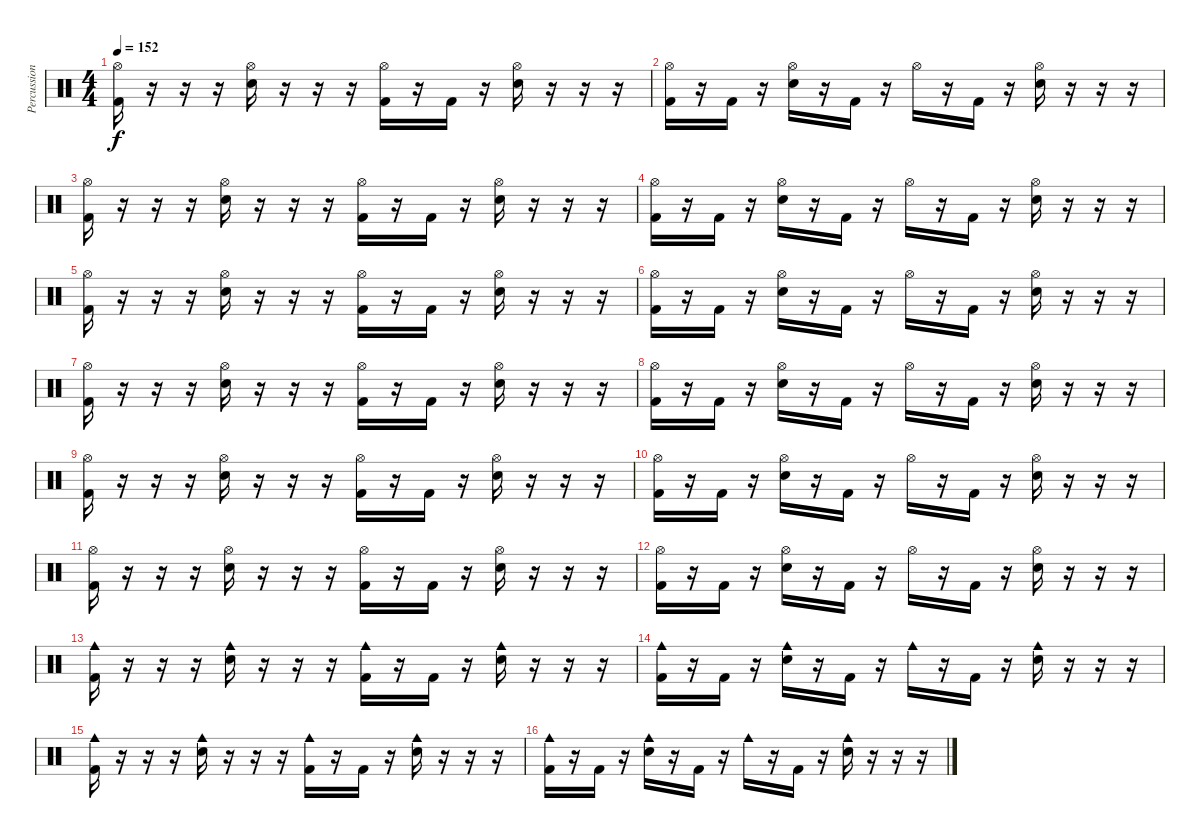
\track ("Percussions" "Percussion") {instrument percussion}
\staff {score}
\articulation defaults
\ts (4 4)
\tempo 152
\clef neutral
\ks c
("Kick (hit) 2" "Hi-Hat (open)").16{dy f} r.16 r.16 r.16 ("Electric Snare (hit)" "Hi-Hat (open)").16 r.16 r.16 r.16 ("Kick (hit) 2" "Hi-Hat (open)").16 r.16 "Kick (hit) 2".16 r.16 ("Electric Snare (hit)" "Hi-Hat (open)").16 r.16 r.16 r.16 |
("Kick (hit) 2" "Hi-Hat (open)").16 r.16 "Kick (hit) 2".16 r.16 ("Electric Snare (hit)" "Hi-Hat (open)").16 r.16 "Kick (hit) 2".16 r.16 "Hi-Hat (open)".16 r.16 "Kick (hit) 2".16 r.16 ("Electric Snare (hit)" "Hi-Hat (open)").16 r.16 r.16 r.16 |
("Kick (hit) 2" "Hi-Hat (open)").16 r.16 r.16 r.16 ("Electric Snare (hit)" "Hi-Hat (open)").16 r.16 r.16 r.16 ("Kick (hit) 2" "Hi-Hat (open)").16 r.16 "Kick (hit) 2".16 r.16 ("Electric Snare (hit)" "Hi-Hat (open)").16 r.16 r.16 r.16 |
("Kick (hit) 2" "Hi-Hat (open)").16 r.16 "Kick (hit) 2".16 r.16 ("Electric Snare (hit)" "Hi-Hat (open)").16 r.16 "Kick (hit) 2".16 r.16 "Hi-Hat (open)".16 r.16 "Kick (hit) 2".16 r.16 ("Electric Snare (hit)" "Hi-Hat (open)").16 r.16 r.16 r.16 |
("Kick (hit) 2" "Hi-Hat (open)").16 r.16 r.16 r.16 ("Electric Snare (hit)" "Hi-Hat (open)").16 r.16 r.16 r.16 ("Kick (hit) 2" "Hi-Hat (open)").16 r.16 "Kick (hit) 2".16 r.16 ("Electric Snare (hit)" "Hi-Hat (open)").16 r.16 r.16 r.16 |
("Kick (hit) 2" "Hi-Hat (open)").16 r.16 "Kick (hit) 2".16 r.16 ("Electric Snare (hit)" "Hi-Hat (open)").16 r.16 "Kick (hit) 2".16 r.16 "Hi-Hat (open)".16 r.16 "Kick (hit) 2".16 r.16 ("Electric Snare (hit)" "Hi-Hat (open)").16 r.16 r.16 r.16 |
("Kick (hit) 2" "Hi-Hat (open)").16 r.16 r.16 r.16 ("Electric Snare (hit)" "Hi-Hat (open)").16 r.16 r.16 r.16 ("Kick (hit) 2" "Hi-Hat (open)").16 r.16 "Kick (hit) 2".16 r.16 ("Electric Snare (hit)" "Hi-Hat (open)").16 r.16 r.16 r.16 |
("Kick (hit) 2" "Hi-Hat (open)").16 r.16 "Kick (hit) 2".16 r.16 ("Electric Snare (hit)" "Hi-Hat (open)").16 r.16 "Kick (hit) 2".16 r.16 "Hi-Hat (open)".16 r.16 "Kick (hit) 2".16 r.16 ("Electric Snare (hit)" "Hi-Hat (open)").16 r.16 r.16 r.16 |
("Kick (hit) 2" "Hi-Hat (open)").16 r.16 r.16 r.16 ("Electric Snare (hit)" "Hi-Hat (open)").16 r.16 r.16 r.16 ("Kick (hit) 2" "Hi-Hat (open)").16 r.16 "Kick (hit) 2".16 r.16 ("Electric Snare (hit)" "Hi-Hat (open)").16 r.16 r.16 r.16 |
("Kick (hit) 2" "Hi-Hat (open)").16 r.16 "Kick (hit) 2".16 r.16 ("Electric Snare (hit)" "Hi-Hat (open)").16 r.16 "Kick (hit) 2".16 r.16 "Hi-Hat (open)".16 r.16 "Kick (hit) 2".16 r.16 ("Electric Snare (hit)" "Hi-Hat (open)").16 r.16 r.16 r.16 |
("Kick (hit) 2" "Hi-Hat (open)").16 r.16 r.16 r.16 ("Electric Snare (hit)" "Hi-Hat (open)").16 r.16 r.16 r.16 ("Kick (hit) 2" "Hi-Hat (open)").16 r.16 "Kick (hit) 2".16 r.16 ("Electric Snare (hit)" "Hi-Hat (open)").16 r.16 r.16 r.16 |
("Kick (hit) 2" "Hi-Hat (open)").16 r.16 "Kick (hit) 2".16 r.16 ("Electric Snare (hit)" "Hi-Hat (open)").16 r.16 "Kick (hit) 2".16 r.16 "Hi-Hat (open)".16 r.16 "Kick (hit) 2".16 r.16 ("Electric Snare (hit)" "Hi-Hat (open)").16 r.16 r.16 r.16 |
("Kick (hit) 2" "Cowbell medium (hit)").16 r.16 r.16 r.16 ("Electric Snare (hit)" "Cowbell medium (hit)").16 r.16 r.16 r.16 ("Kick (hit) 2" "Cowbell medium (hit)").16 r.16 "Kick (hit) 2".16 r.16 ("Electric Snare (hit)" "Cowbell medium (hit)").16 r.16 r.16 r.16 |
("Kick (hit) 2" "Cowbell medium (hit)").16 r.16 "Kick (hit) 2".16 r.16 ("Electric Snare (hit)" "Cowbell medium (hit)").16 r.16 "Kick (hit) 2".16 r.16 "Cowbell medium (hit)".16 r.16 "Kick (hit) 2".16 r.16 ("Electric Snare (hit)" "Cowbell medium (hit)").16 r.16 r.16 r.16 |
("Kick (hit) 2" "Cowbell medium (hit)").16 r.16 r.16 r.16 ("Electric Snare (hit)" "Cowbell medium (hit)").16 r.16 r.16 r.16 ("Kick (hit) 2" "Cowbell medium (hit)").16 r.16 "Kick (hit) 2".16 r.16 ("Electric Snare (hit)" "Cowbell medium (hit)").16 r.16 r.16 r.16 |
("Kick (hit) 2" "Cowbell medium (hit)").16 r.16 "Kick (hit) 2".16 r.16 ("Electric Snare (hit)" "Cowbell medium (hit)").16 r.16 "Kick (hit) 2".16 r.16 "Cowbell medium (hit)".16 r.16 "Kick (hit) 2".16 r.16 ("Electric Snare (hit)" "Cowbell medium (hit)").16 r.16 r.16 r.16
